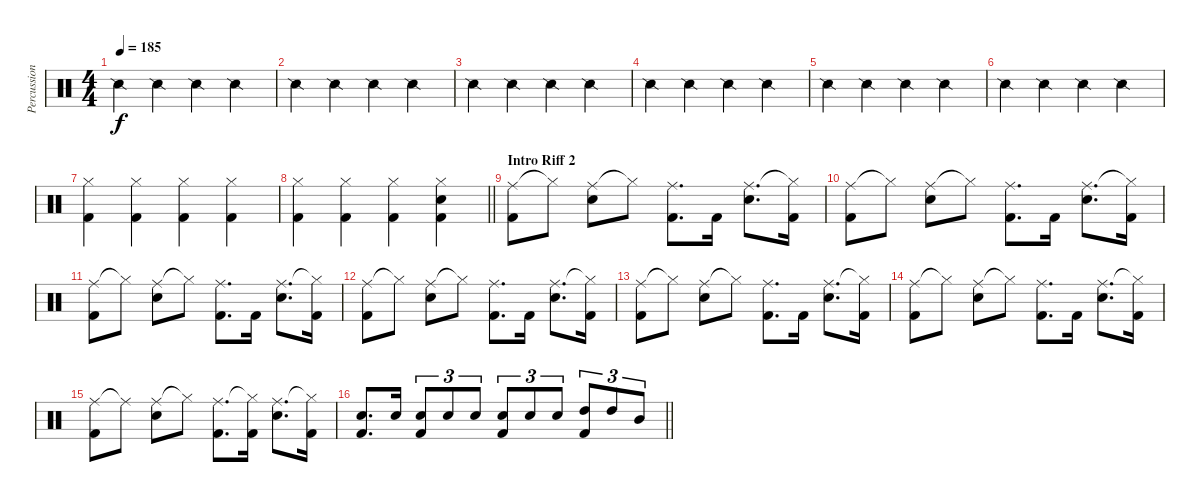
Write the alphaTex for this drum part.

\track ("Percussion" "Percussion") {instrument percussion}
\staff {score}
\articulation defaults
\ts (4 4)
\tempo 185
\clef neutral
\ks c "Snare (side stick) 2".4{dy f} "Snare (side stick) 2".4 "Snare (side stick) 2".4 "Snare (side stick) 2".4
|
"Snare (side stick) 2".4 "Snare (side stick) 2".4 "Snare (side stick) 2".4 "Snare (side stick) 2".4 |
"Snare (side stick) 2".4 "Snare (side stick) 2".4 "Snare (side stick) 2".4 "Snare (side stick) 2".4 |
"Snare (side stick) 2".4 "Snare (side stick) 2".4 "Snare (side stick) 2".4 "Snare (side stick) 2".4 |
"Snare (side stick) 2".4 "Snare (side stick) 2".4 "Snare (side stick) 2".4 "Snare (side stick) 2".4 |
"Snare (side stick) 2".4 "Snare (side stick) 2".4 "Snare (side stick) 2".4 "Snare (side stick) 2".4 |
("Hi-Hat (closed)" "Kick (hit) 2").4 ("Hi-Hat (closed)" "Kick (hit) 2").4 ("Hi-Hat (closed)" "Kick (hit) 2").4 ("Hi-Hat (closed)" "Kick (hit) 2").4 |
\barLineRight lightlight
("Hi-Hat (closed)" "Kick (hit) 2").4 ("Hi-Hat (closed)" "Kick (hit) 2").4 ("Hi-Hat (closed)" "Kick (hit) 2").4 ("Hi-Hat (closed)" "Snare (hit) 2" "Kick (hit) 2").4 |
\section ("" "Intro Riff 2")
("Ride (middle)" "Kick (hit) 2").8 "Hi-Hat (closed)"{t}.8 ("Ride (middle)" "Snare (hit) 2").8 "Hi-Hat (closed)"{t}.8 ("Ride (middle)" "Kick (hit) 2").8{d} "Kick (hit) 2".16 ("Ride (middle)" "Snare (hit) 2").8{d} ("Hi-Hat (closed)"{t} "Kick (hit) 2").16 |
("Ride (middle)" "Kick (hit) 2").8 "Hi-Hat (closed)"{t}.8 ("Ride (middle)" "Snare (hit) 2").8 "Hi-Hat (closed)"{t}.8 ("Ride (middle)" "Kick (hit) 2").8{d} "Kick (hit) 2".16 ("Ride (middle)" "Snare (hit) 2").8{d} ("Hi-Hat (closed)"{t} "Kick (hit) 2").16 |
("Ride (middle)" "Kick (hit) 2").8 "Hi-Hat (closed)"{t}.8 ("Ride (middle)" "Snare (hit) 2").8 "Hi-Hat (closed)"{t}.8 ("Ride (middle)" "Kick (hit) 2").8{d} "Kick (hit) 2".16 ("Ride (middle)" "Snare (hit) 2").8{d} ("Hi-Hat (closed)"{t} "Kick (hit) 2").16 |
("Ride (middle)" "Kick (hit) 2").8 "Hi-Hat (closed)"{t}.8 ("Ride (middle)" "Snare (hit) 2").8 "Hi-Hat (closed)"{t}.8 ("Ride (middle)" "Kick (hit) 2").8{d} "Kick (hit) 2".16 ("Ride (middle)" "Snare (hit) 2").8{d} ("Hi-Hat (closed)"{t} "Kick (hit) 2").16 |
("Ride (middle)" "Kick (hit) 2").8 "Hi-Hat (closed)"{t}.8 ("Ride (middle)" "Snare (hit) 2").8 "Hi-Hat (closed)"{t}.8 ("Ride (middle)" "Kick (hit) 2").8{d} "Kick (hit) 2".16 ("Ride (middle)" "Snare (hit) 2").8{d} ("Hi-Hat (closed)"{t} "Kick (hit) 2").16 |
("Ride (middle)" "Kick (hit) 2").8 "Hi-Hat (closed)"{t}.8 ("Ride (middle)" "Snare (hit) 2").8 "Hi-Hat (closed)"{t}.8 ("Ride (middle)" "Kick (hit) 2").8{d} "Kick (hit) 2".16 ("Ride (middle)" "Snare (hit) 2").8{d} ("Hi-Hat (closed)"{t} "Kick (hit) 2").16 |
("Ride (middle)" "Kick (hit) 2").8 "Ride (middle)"{t}.8 ("Ride (middle)" "Snare (hit) 2").8 "Hi-Hat (closed)"{t}.8 ("Ride (middle)" "Kick (hit) 2").8{d} ("Hi-Hat (closed)"{t} "Kick (hit) 2").16 ("Ride (middle)" "Snare (hit) 2").8{d} ("Hi-Hat (closed)"{t} "Kick (hit) 2").16 |
\barLineRight lightlight
("Snare (hit) 2" "Kick (hit) 2").8{d} "Snare (hit) 2".16 ("Snare (hit) 2" "Kick (hit) 2").8{tu (3 2)} "Snare (hit) 2".8{tu (3 2)} "Snare (hit) 2".8{tu (3 2)} ("Snare (hit) 2" "Kick (hit) 2").8{tu (3 2)} "Snare (hit) 2".8{tu (3 2)} "Snare (hit) 2".8{tu (3 2)} ("High Tom (hit)" "Kick (hit) 2").8{tu (3 2)} "High Tom (hit)".8{tu (3 2)} "Mid Tom (hit)".8{tu (3 2)}
